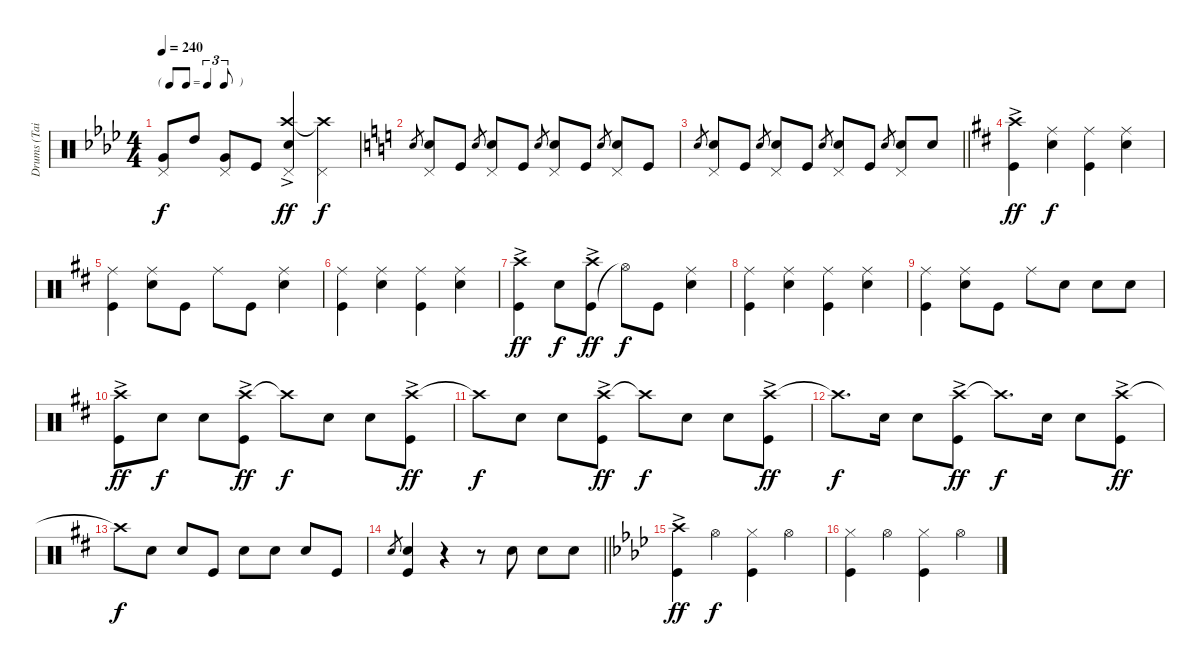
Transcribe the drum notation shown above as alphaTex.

\track ("Drums (Tainaka Ritsu)" "Drums (Tai") {instrument percussion}
\staff {score}
\articulation defaults
\ts (4 4)
\tf triplet8th
\tempo 240
\clef neutral
\ks ab
("Pedal Hi-Hat (hit)" "Very Low Tom (hit)").8{dy f} "High Tom (hit)".8 ("Very Low Tom (hit)" "Pedal Hi-Hat (hit)").8 "Kick (hit)".8 ("Crash high (hit)"{ac} "Snare (hit) 2" "Pedal Hi-Hat (hit)").4{dy ff} ("Crash high (hit)"{t} "Pedal Hi-Hat (hit)").4{dy f} |
\ks c "Snare (hit) 2".8{gr}
("Snare (hit) 2" "Pedal Hi-Hat (hit)").8 "Kick (hit)".8 "Snare (hit) 2".8{gr} ("Snare (hit) 2" "Pedal Hi-Hat (hit)").8 "Kick (hit)".8 "Snare (hit) 2".8{gr} ("Snare (hit) 2" "Pedal Hi-Hat (hit)").8 "Kick (hit)".8 "Snare (hit) 2".8{gr} ("Snare (hit) 2" "Pedal Hi-Hat (hit)").8 "Kick (hit)".8 |
\barLineRight lightlight "Snare (hit) 2".8{gr}
("Snare (hit) 2" "Pedal Hi-Hat (hit)").8 "Kick (hit)".8 "Snare (hit) 2".8{gr} ("Snare (hit) 2" "Pedal Hi-Hat (hit)").8 "Kick (hit)".8 "Snare (hit) 2".8{gr} ("Snare (hit) 2" "Pedal Hi-Hat (hit)").8 "Kick (hit)".8 "Snare (hit) 2".8{gr} ("Snare (hit) 2" "Pedal Hi-Hat (hit)").8 "Snare (hit) 2".8 |
\ks d
("Crash high (hit)"{ac} "Kick (hit)").4{dy ff} ("Ride (middle)" "Snare (hit) 2").4{dy f} ("Ride (middle)" "Kick (hit)").4 ("Ride (middle)" "Snare (hit) 2").4 |
("Ride (middle)" "Kick (hit)").4 ("Ride (middle)" "Snare (hit) 2").8 "Kick (hit)".8 "Ride (middle)".8 "Kick (hit)".8 ("Ride (middle)" "Snare (hit) 2").4 |
("Ride (middle)" "Kick (hit)").4 ("Ride (middle)" "Snare (hit) 2").4 ("Ride (middle)" "Kick (hit)").4 ("Ride (middle)" "Snare (hit) 2").4 |
("Crash high (hit)"{ac} "Kick (hit)").4{dy ff} "Snare (hit) 2".8{dy f} ("Kick (hit)" "Crash high (hit)"{ac}).8{dy ff} "Hi-Hat (open)"{t}.8{dy f} "Kick (hit)".8 ("Ride (middle)" "Snare (hit) 2").4 |
("Ride (middle)" "Kick (hit)").4 ("Ride (middle)" "Snare (hit) 2").4 ("Ride (middle)" "Kick (hit)").4 ("Ride (middle)" "Snare (hit) 2").4 |
("Kick (hit)" "Ride (middle)").4 ("Ride (middle)" "Snare (hit) 2").8 "Kick (hit)".8 "Ride (middle)".8 "Snare (hit) 2".8 "Snare (hit) 2".8 "Snare (hit) 2".8 |
("Crash high (hit)"{ac} "Kick (hit)").8{dy ff} "Snare (hit) 2".8{dy f} "Snare (hit) 2".8 ("Crash high (hit)"{ac} "Kick (hit)").8{dy ff} "Crash high (hit)"{t}.8{dy f} "Snare (hit) 2".8 "Snare (hit) 2".8 ("Crash high (hit)"{ac} "Kick (hit)").8{dy ff} |
"Crash high (hit)"{t}.8{dy f} "Snare (hit) 2".8 "Snare (hit) 2".8 ("Crash high (hit)"{ac} "Kick (hit)").8{dy ff} "Crash high (hit)"{t}.8{dy f} "Snare (hit) 2".8 "Snare (hit) 2".8 ("Crash high (hit)"{ac} "Kick (hit)").8{dy ff} |
"Crash high (hit)"{t}.8{d dy f} "Snare (hit) 2".16 "Snare (hit) 2".8 ("Crash high (hit)"{ac} "Kick (hit)").8{dy ff} "Crash high (hit)"{t}.8{d dy f} "Snare (hit) 2".16 "Snare (hit) 2".8 ("Crash high (hit)"{ac} "Kick (hit)").8{dy ff} |
"Crash high (hit)"{t}.8{dy f} "Snare (hit) 2".8 "Snare (hit) 2".8 "Kick (hit)".8 "Snare (hit) 2".8 "Snare (hit) 2".8 "Snare (hit) 2".8 "Kick (hit)".8 |
\barLineRight lightlight "Snare (hit) 2".8{gr}
("Snare (hit) 2" "Kick (hit)").4 r.4 r.8 "Snare (hit) 2".8 "Snare (hit) 2".8 "Snare (hit) 2".8 |
\ks ab
("Crash high (hit)"{ac} "Kick (hit)").4{dy ff} "Hi-Hat (open)".4{dy f} ("Hi-Hat (closed)" "Kick (hit)").4 "Hi-Hat (open)".4 |
("Hi-Hat (closed)" "Kick (hit)").4 "Hi-Hat (open)".4 ("Hi-Hat (closed)" "Kick (hit)").4 "Hi-Hat (open)".4
